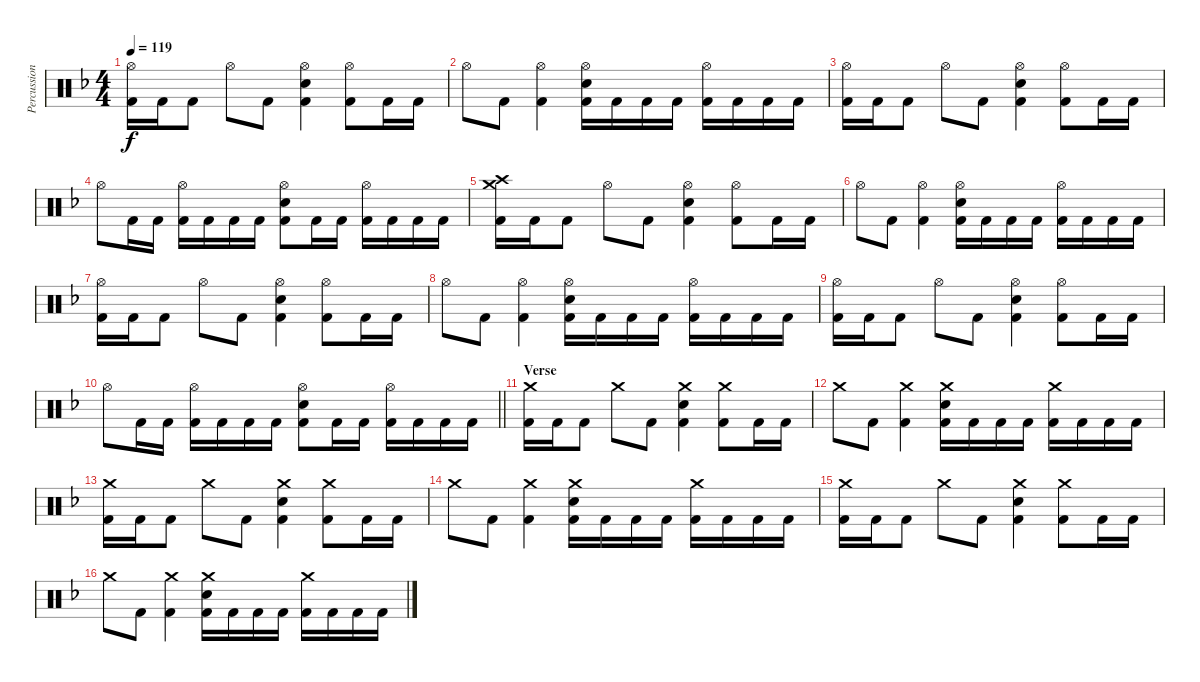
\track ("Percussion" "Percussion") {instrument percussion}
\staff {score}
\articulation defaults
\ts (4 4)
\tempo 119
\clef neutral
\ks dminor
("Hi-Hat (open)" "Kick (hit) 2").16{dy f} "Kick (hit) 2".16 "Kick (hit) 2".8 "Hi-Hat (open)".8 "Kick (hit) 2".8 ("Hi-Hat (open)" "Electric Snare (hit)" "Kick (hit) 2").4 ("Hi-Hat (open)" "Kick (hit) 2").8 "Kick (hit) 2".16 "Kick (hit) 2".16 |
"Hi-Hat (open)".8 "Kick (hit) 2".8 ("Hi-Hat (open)" "Kick (hit) 2").4 ("Hi-Hat (open)" "Electric Snare (hit)" "Kick (hit) 2").16 "Kick (hit) 2".16 "Kick (hit) 2".16 "Kick (hit) 2".16 ("Hi-Hat (open)" "Kick (hit) 2").16 "Kick (hit) 2".16 "Kick (hit) 2".16 "Kick (hit) 2".16 |
("Hi-Hat (open)" "Kick (hit) 2").16 "Kick (hit) 2".16 "Kick (hit) 2".8 "Hi-Hat (open)".8 "Kick (hit) 2".8 ("Hi-Hat (open)" "Electric Snare (hit)" "Kick (hit) 2").4 ("Hi-Hat (open)" "Kick (hit) 2").8 "Kick (hit) 2".16 "Kick (hit) 2".16 |
"Hi-Hat (open)".8 "Kick (hit) 2".16 "Kick (hit) 2".16 ("Hi-Hat (open)" "Kick (hit) 2").16 "Kick (hit) 2".16 "Kick (hit) 2".16 "Kick (hit) 2".16 ("Hi-Hat (open)" "Electric Snare (hit)" "Kick (hit) 2").8 "Kick (hit) 2".16 "Kick (hit) 2".16 ("Hi-Hat (open)" "Kick (hit) 2").16 "Kick (hit) 2".16 "Kick (hit) 2".16 "Kick (hit) 2".16 |
("Crash medium (hit)" "Crash high (hit)" "Kick (hit) 2").16 "Kick (hit) 2".16 "Kick (hit) 2".8 "Hi-Hat (open)".8 "Kick (hit) 2".8 ("Hi-Hat (open)" "Electric Snare (hit)" "Kick (hit) 2").4 ("Hi-Hat (open)" "Kick (hit) 2").8 "Kick (hit) 2".16 "Kick (hit) 2".16 |
"Hi-Hat (open)".8 "Kick (hit) 2".8 ("Hi-Hat (open)" "Kick (hit) 2").4 ("Hi-Hat (open)" "Electric Snare (hit)" "Kick (hit) 2").16 "Kick (hit) 2".16 "Kick (hit) 2".16 "Kick (hit) 2".16 ("Hi-Hat (open)" "Kick (hit) 2").16 "Kick (hit) 2".16 "Kick (hit) 2".16 "Kick (hit) 2".16 |
("Hi-Hat (open)" "Kick (hit) 2").16 "Kick (hit) 2".16 "Kick (hit) 2".8 "Hi-Hat (open)".8 "Kick (hit) 2".8 ("Hi-Hat (open)" "Electric Snare (hit)" "Kick (hit) 2").4 ("Hi-Hat (open)" "Kick (hit) 2").8 "Kick (hit) 2".16 "Kick (hit) 2".16 |
"Hi-Hat (open)".8 "Kick (hit) 2".8 ("Hi-Hat (open)" "Kick (hit) 2").4 ("Hi-Hat (open)" "Electric Snare (hit)" "Kick (hit) 2").16 "Kick (hit) 2".16 "Kick (hit) 2".16 "Kick (hit) 2".16 ("Hi-Hat (open)" "Kick (hit) 2").16 "Kick (hit) 2".16 "Kick (hit) 2".16 "Kick (hit) 2".16 |
("Hi-Hat (open)" "Kick (hit) 2").16 "Kick (hit) 2".16 "Kick (hit) 2".8 "Hi-Hat (open)".8 "Kick (hit) 2".8 ("Hi-Hat (open)" "Electric Snare (hit)" "Kick (hit) 2").4 ("Hi-Hat (open)" "Kick (hit) 2").8 "Kick (hit) 2".16 "Kick (hit) 2".16 |
\barLineRight lightlight "Hi-Hat (open)".8 "Kick (hit) 2".16 "Kick (hit) 2".16
("Hi-Hat (open)" "Kick (hit) 2").16 "Kick (hit) 2".16 "Kick (hit) 2".16 "Kick (hit) 2".16 ("Hi-Hat (open)" "Electric Snare (hit)" "Kick (hit) 2").8 "Kick (hit) 2".16 "Kick (hit) 2".16 ("Hi-Hat (open)" "Kick (hit) 2").16 "Kick (hit) 2".16 "Kick (hit) 2".16 "Kick (hit) 2".16 |
\section ("" "Verse")
("Crash medium (hit)" "Kick (hit) 2").16 "Kick (hit) 2".16 "Kick (hit) 2".8 "Crash medium (hit)".8 "Kick (hit) 2".8 ("Crash medium (hit)" "Electric Snare (hit)" "Kick (hit) 2").4 ("Crash medium (hit)" "Kick (hit) 2").8 "Kick (hit) 2".16 "Kick (hit) 2".16 |
"Crash medium (hit)".8 "Kick (hit) 2".8 ("Crash medium (hit)" "Kick (hit) 2").4 ("Crash medium (hit)" "Electric Snare (hit)" "Kick (hit) 2").16 "Kick (hit) 2".16 "Kick (hit) 2".16 "Kick (hit) 2".16 ("Crash medium (hit)" "Kick (hit) 2").16 "Kick (hit) 2".16 "Kick (hit) 2".16 "Kick (hit) 2".16 |
("Crash medium (hit)" "Kick (hit) 2").16 "Kick (hit) 2".16 "Kick (hit) 2".8 "Crash medium (hit)".8 "Kick (hit) 2".8 ("Crash medium (hit)" "Electric Snare (hit)" "Kick (hit) 2").4 ("Crash medium (hit)" "Kick (hit) 2").8 "Kick (hit) 2".16 "Kick (hit) 2".16 |
"Crash medium (hit)".8 "Kick (hit) 2".8 ("Crash medium (hit)" "Kick (hit) 2").4 ("Crash medium (hit)" "Electric Snare (hit)" "Kick (hit) 2").16 "Kick (hit) 2".16 "Kick (hit) 2".16 "Kick (hit) 2".16 ("Crash medium (hit)" "Kick (hit) 2").16 "Kick (hit) 2".16 "Kick (hit) 2".16 "Kick (hit) 2".16 |
("Crash medium (hit)" "Kick (hit) 2").16 "Kick (hit) 2".16 "Kick (hit) 2".8 "Crash medium (hit)".8 "Kick (hit) 2".8 ("Crash medium (hit)" "Electric Snare (hit)" "Kick (hit) 2").4 ("Crash medium (hit)" "Kick (hit) 2").8 "Kick (hit) 2".16 "Kick (hit) 2".16 |
"Crash medium (hit)".8 "Kick (hit) 2".8 ("Crash medium (hit)" "Kick (hit) 2").4 ("Crash medium (hit)" "Electric Snare (hit)" "Kick (hit) 2").16 "Kick (hit) 2".16 "Kick (hit) 2".16 "Kick (hit) 2".16 ("Crash medium (hit)" "Kick (hit) 2").16 "Kick (hit) 2".16 "Kick (hit) 2".16 "Kick (hit) 2".16
